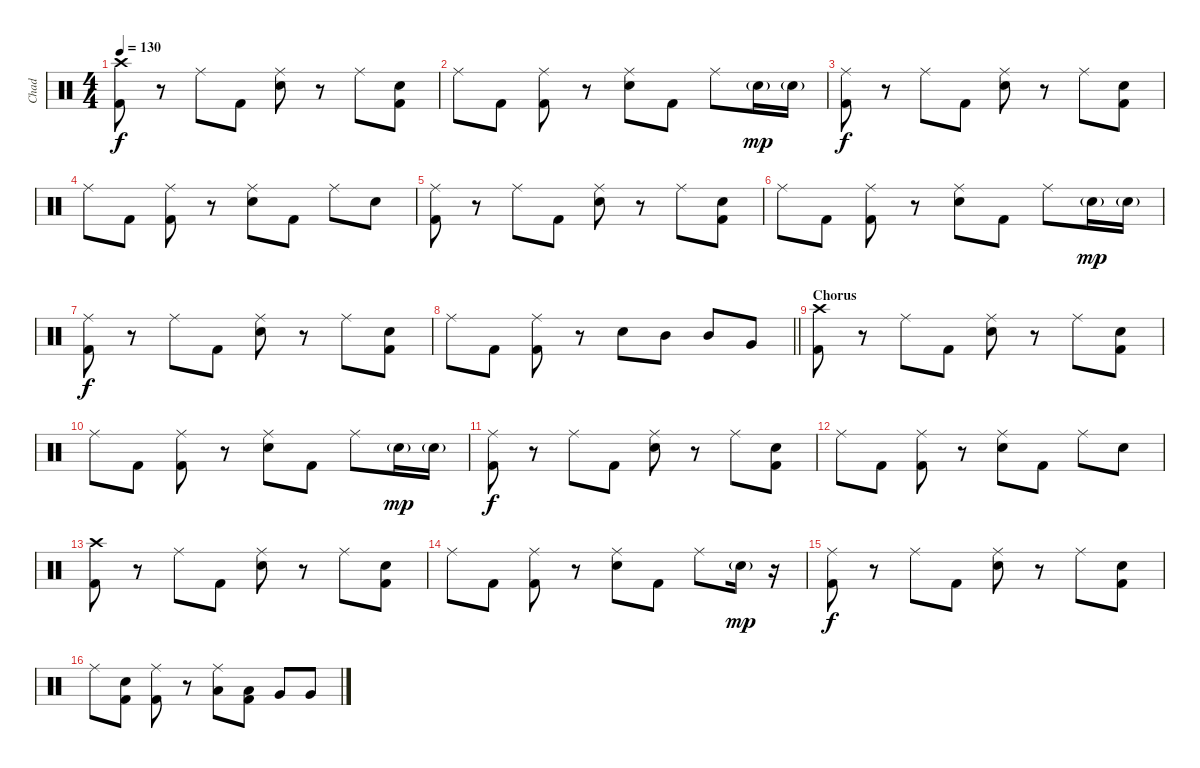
\track ("Chad" "Chad") {instrument percussion}
\staff {score}
\articulation defaults
\ts (4 4)
\tempo 130
\clef neutral
\ks c
("Crash high (hit)" "Kick (hit) 2").8{dy f} r.8 "Ride (middle)".8 "Kick (hit) 2".8 ("Ride (middle)" "Electric Snare (hit)").8 r.8 "Ride (middle)".8 ("Electric Snare (hit)" "Kick (hit) 2").8 |
"Ride (middle)".8 "Kick (hit) 2".8 ("Ride (middle)" "Kick (hit) 2").8 r.8 ("Ride (middle)" "Electric Snare (hit)").8 "Kick (hit) 2".8 "Ride (middle)".8 "Electric Snare (hit)"{g}.16{dy mp} "Electric Snare (hit)"{g}.16 |
("Ride (middle)" "Kick (hit) 2").8{dy f} r.8 "Ride (middle)".8 "Kick (hit) 2".8 ("Ride (middle)" "Electric Snare (hit)").8 r.8 "Ride (middle)".8 ("Electric Snare (hit)" "Kick (hit) 2").8 |
"Ride (middle)".8 "Kick (hit) 2".8 ("Ride (middle)" "Kick (hit) 2").8 r.8 ("Ride (middle)" "Electric Snare (hit)").8 "Kick (hit) 2".8 "Ride (middle)".8 "Electric Snare (hit)".8 |
("Ride (middle)" "Kick (hit) 2").8 r.8 "Ride (middle)".8 "Kick (hit) 2".8 ("Ride (middle)" "Electric Snare (hit)").8 r.8 "Ride (middle)".8 ("Electric Snare (hit)" "Kick (hit) 2").8 |
"Ride (middle)".8 "Kick (hit) 2".8 ("Ride (middle)" "Kick (hit) 2").8 r.8 ("Ride (middle)" "Electric Snare (hit)").8 "Kick (hit) 2".8 "Ride (middle)".8 "Electric Snare (hit)"{g}.16{dy mp} "Electric Snare (hit)"{g}.16 |
("Ride (middle)" "Kick (hit) 2").8{dy f} r.8 "Ride (middle)".8 "Kick (hit) 2".8 ("Ride (middle)" "Electric Snare (hit)").8 r.8 "Ride (middle)".8 ("Electric Snare (hit)" "Kick (hit) 2").8 |
\barLineRight lightlight "Ride (middle)".8 "Kick (hit) 2".8
("Ride (middle)" "Kick (hit) 2").8 r.8 "Electric Snare (hit)".8 "Mid Tom (hit)".8 "Mid Tom (hit)".8 "Very Low Tom (hit)".8 |
\section ("" "Chorus")
("Crash high (hit)" "Kick (hit) 2").8 r.8 "Ride (middle)".8 "Kick (hit) 2".8 ("Ride (middle)" "Electric Snare (hit)").8 r.8 "Ride (middle)".8 ("Electric Snare (hit)" "Kick (hit) 2").8 |
"Ride (middle)".8 "Kick (hit) 2".8 ("Ride (middle)" "Kick (hit) 2").8 r.8 ("Ride (middle)" "Electric Snare (hit)").8 "Kick (hit) 2".8 "Ride (middle)".8 "Electric Snare (hit)"{g}.16{dy mp} "Electric Snare (hit)"{g}.16 |
("Ride (middle)" "Kick (hit) 2").8{dy f} r.8 "Ride (middle)".8 "Kick (hit) 2".8 ("Ride (middle)" "Electric Snare (hit)").8 r.8 "Ride (middle)".8 ("Electric Snare (hit)" "Kick (hit) 2").8 |
"Ride (middle)".8 "Kick (hit) 2".8 ("Ride (middle)" "Kick (hit) 2").8 r.8 ("Ride (middle)" "Electric Snare (hit)").8 "Kick (hit) 2".8 "Ride (middle)".8 "Electric Snare (hit)".8 |
("Crash high (hit)" "Kick (hit) 2").8 r.8 "Ride (middle)".8 "Kick (hit) 2".8 ("Ride (middle)" "Electric Snare (hit)").8 r.8 "Ride (middle)".8 ("Electric Snare (hit)" "Kick (hit) 2").8 |
"Ride (middle)".8 "Kick (hit) 2".8 ("Ride (middle)" "Kick (hit) 2").8 r.8 ("Ride (middle)" "Electric Snare (hit)").8 "Kick (hit) 2".8 "Ride (middle)".8 "Electric Snare (hit)"{g}.16{dy mp} r.16 |
("Ride (middle)" "Kick (hit) 2").8{dy f} r.8 "Ride (middle)".8 "Kick (hit) 2".8 ("Ride (middle)" "Electric Snare (hit)").8 r.8 "Ride (middle)".8 ("Electric Snare (hit)" "Kick (hit) 2").8 |
"Ride (middle)".8 ("Electric Snare (hit)" "Kick (hit) 2").8 ("Ride (middle)" "Kick (hit) 2").8 r.8 ("Ride (middle)" "Low Tom (hit)").8 ("Low Tom (hit)" "Kick (hit) 2").8 "Very Low Tom (hit)".8 "Very Low Tom (hit)".8
